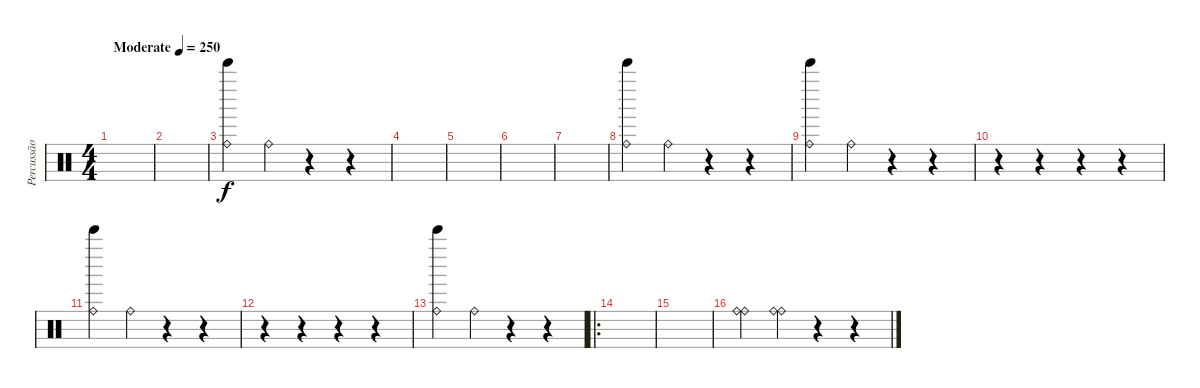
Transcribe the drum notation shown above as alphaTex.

\track ("Percussão" "Percussão") {instrument percussion}
\staff {score}
\articulation defaults
\ts (4 4)
\tempo (250 "Moderate")
\clef neutral
\ks c
|
|
("Bell Tree (hit)" "Ride (bell)").4 "Ride (bell)".4 r.4 r.4 |
|
|
|
|
("Bell Tree (hit)" "Ride (bell)").4 "Ride (bell)".4 r.4 r.4 |
("Bell Tree (hit)" "Ride (bell)").4 "Ride (bell)".4 r.4 r.4 |
r.4 r.4 r.4 r.4 |
("Bell Tree (hit)" "Ride (bell)").4 "Ride (bell)".4 r.4 r.4 |
r.4 r.4 r.4 r.4 |
("Bell Tree (hit)" "Ride (bell)").4 "Ride (bell)".4 r.4 r.4 |
\ro
|
|
("Ride (bell)" "Ride (bell)").4 ("Ride (bell)" "Ride (bell)").4 r.4 r.4
